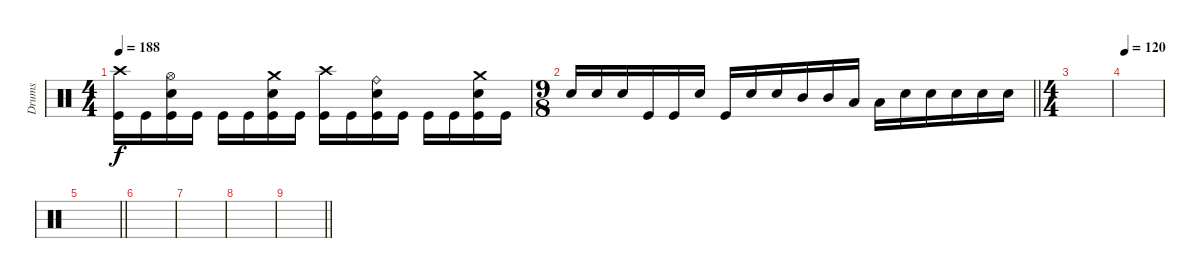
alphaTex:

\track ("Drums" "Drums") {instrument percussion}
\staff
\articulation defaults
\ts (4 4)
\tempo 188
\clef neutral
\ks c
("Crash high (hit)" "Kick (hit)").16{dy f} "Kick (hit)".16 ("Hi-Hat (open)" "Electric Snare (hit)" "Kick (hit)").16 "Kick (hit)".16 "Kick (hit)".16 "Kick (hit)".16 ("Crash medium (hit)" "Electric Snare (hit)" "Kick (hit)").16 "Kick (hit)".16 ("Crash high (hit)" "Kick (hit)").16 "Kick (hit)".16 ("Ride (bell)" "Electric Snare (hit)" "Kick (hit)").16 "Kick (hit)".16 "Kick (hit)".16 "Kick (hit)".16 ("Crash medium (hit)" "Electric Snare (hit)" "Kick (hit)").16 "Kick (hit)".16 |
\ts (9 8)
\barLineRight lightlight "Electric Snare (hit)".16 "Electric Snare (hit)".16 "Electric Snare (hit)".16 "Kick (hit)".16 "Kick (hit)".16 "Electric Snare (hit)".16 "Kick (hit)".16 "Electric Snare (hit)".16 "Electric Snare (hit)".16 "Mid Tom (hit)".16 "Mid Tom (hit)".16 "Low Tom (hit)".16 "Low Tom (hit)".16 "Electric Snare (hit)".16 "Electric Snare (hit)".16 "Electric Snare (hit)".16 "Electric Snare (hit)".16 "Electric Snare (hit)".16
|
\ts (4 4)
|
\tempo 120
|
\barLineRight lightlight
|
|
|
|
\barLineRight lightlight
